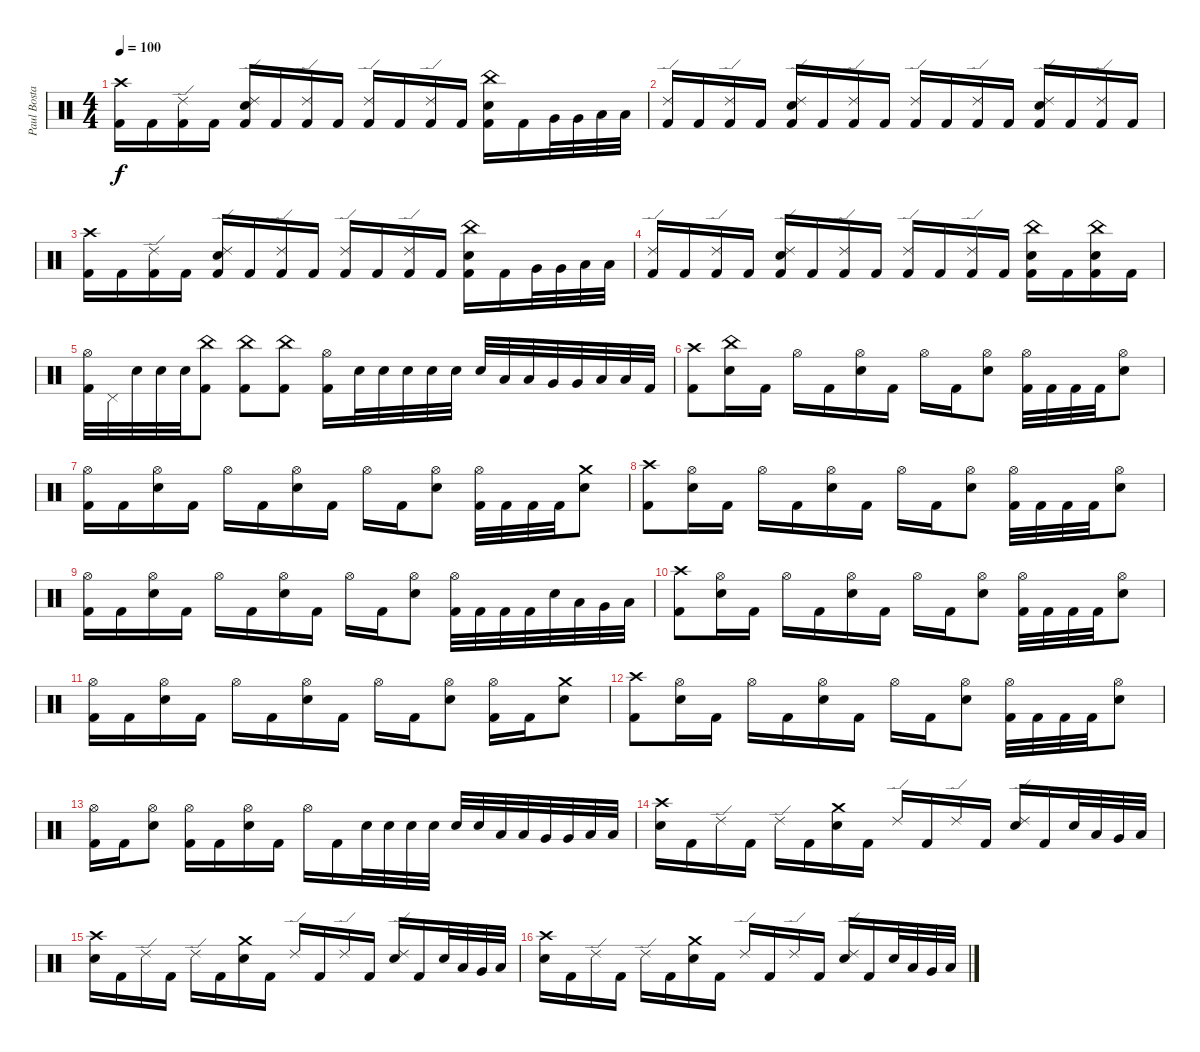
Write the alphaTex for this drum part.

\track ("Paul Bostaph" "Paul Bosta") {instrument percussion}
\staff {score}
\articulation defaults
\ts (4 4)
\tempo 100
\clef neutral
\ks c
("Crash high (hit)" "Kick (hit) 2").16{dy f} "Kick (hit) 2".16 ("Ride (edge) 2" "Kick (hit) 2").16 "Kick (hit) 2".16 ("Ride (edge) 2" "Snare (hit) 2" "Kick (hit) 2").16 "Kick (hit) 2".16 ("Ride (edge) 2" "Kick (hit) 2").16 "Kick (hit) 2".16 ("Ride (edge) 2" "Kick (hit) 2").16 "Kick (hit) 2".16 ("Ride (edge) 2" "Kick (hit) 2").16 "Kick (hit) 2".16 ("China (hit)" "Snare (hit) 2" "Kick (hit) 2").16 "Kick (hit) 2".16 "Very Low Tom (hit)".32 "Very Low Tom (hit)".32 "Low Floor Tom (hit)".32 "Low Floor Tom (hit)".32 |
("Ride (edge) 2" "Kick (hit) 2").16 "Kick (hit) 2".16 ("Ride (edge) 2" "Kick (hit) 2").16 "Kick (hit) 2".16 ("Ride (edge) 2" "Snare (hit) 2" "Kick (hit) 2").16 "Kick (hit) 2".16 ("Ride (edge) 2" "Kick (hit) 2").16 "Kick (hit) 2".16 ("Ride (edge) 2" "Kick (hit) 2").16 "Kick (hit) 2".16 ("Ride (edge) 2" "Kick (hit) 2").16 "Kick (hit) 2".16 ("Ride (edge) 2" "Snare (hit) 2" "Kick (hit) 2").16 "Kick (hit) 2".16 ("Ride (edge) 2" "Kick (hit) 2").16 "Kick (hit) 2".16 |
("Crash high (hit)" "Kick (hit) 2").16 "Kick (hit) 2".16 ("Ride (edge) 2" "Kick (hit) 2").16 "Kick (hit) 2".16 ("Ride (edge) 2" "Snare (hit) 2" "Kick (hit) 2").16 "Kick (hit) 2".16 ("Ride (edge) 2" "Kick (hit) 2").16 "Kick (hit) 2".16 ("Ride (edge) 2" "Kick (hit) 2").16 "Kick (hit) 2".16 ("Ride (edge) 2" "Kick (hit) 2").16 "Kick (hit) 2".16 ("China (hit)" "Snare (hit) 2" "Kick (hit) 2").16 "Kick (hit) 2".16 "Very Low Tom (hit)".32 "Very Low Tom (hit)".32 "Low Floor Tom (hit)".32 "Low Floor Tom (hit)".32 |
("Ride (edge) 2" "Kick (hit) 2").16 "Kick (hit) 2".16 ("Ride (edge) 2" "Kick (hit) 2").16 "Kick (hit) 2".16 ("Ride (edge) 2" "Snare (hit) 2" "Kick (hit) 2").16 "Kick (hit) 2".16 ("Ride (edge) 2" "Kick (hit) 2").16 "Kick (hit) 2".16 ("Ride (edge) 2" "Kick (hit) 2").16 "Kick (hit) 2".16 ("Ride (edge) 2" "Kick (hit) 2").16 "Kick (hit) 2".16 ("China (hit)" "Snare (hit) 2" "Kick (hit) 2").16 "Kick (hit) 2".16 ("China (hit)" "Snare (hit) 2" "Kick (hit) 2").16 "Kick (hit) 2".16 |
("Hi-Hat (open)" "Kick (hit) 2").32 "Pedal Hi-Hat (hit)".32 "Snare (hit) 2".32 "Snare (hit) 2".32 "Snare (hit) 2".32 ("China (hit)" "Kick (hit) 2").8 ("China (hit)" "Kick (hit) 2").8 ("China (hit)" "Kick (hit) 2").8 ("Hi-Hat (open)" "Kick (hit) 2").16 "Snare (hit) 2".32 "Snare (hit) 2".32 "Snare (hit) 2".32 "Snare (hit) 2".32 "Snare (hit) 2".32 "Snare (hit) 2".32 "Low Tom (hit)".32 "Low Tom (hit)".32 "Very Low Tom (hit)".32 "Very Low Tom (hit)".32 "Low Floor Tom (hit)".32 "Low Floor Tom (hit)".32 "Kick (hit) 2".32 |
("Crash high (hit)" "Kick (hit) 2").8 ("China (hit)" "Snare (hit) 2").16 "Kick (hit) 2".16 "Hi-Hat (open)".16 "Kick (hit) 2".16 ("Hi-Hat (open)" "Snare (hit) 2").16 "Kick (hit) 2".16 "Hi-Hat (open)".16 "Kick (hit) 2".16 ("Hi-Hat (open)" "Snare (hit) 2").8 ("Hi-Hat (open)" "Kick (hit) 2").32 "Kick (hit) 2".32 "Kick (hit) 2".32 "Kick (hit) 2".32 ("Hi-Hat (open)" "Snare (hit) 2").8 |
("Hi-Hat (open)" "Kick (hit) 2").16 "Kick (hit) 2".16 ("Hi-Hat (open)" "Snare (hit) 2").16 "Kick (hit) 2".16 "Hi-Hat (open)".16 "Kick (hit) 2".16 ("Hi-Hat (open)" "Snare (hit) 2").16 "Kick (hit) 2".16 "Hi-Hat (open)".16 "Kick (hit) 2".16 ("Hi-Hat (open)" "Snare (hit) 2").8 ("Hi-Hat (open)" "Kick (hit) 2").32 "Kick (hit) 2".32 "Kick (hit) 2".32 "Kick (hit) 2".32 ("Crash medium (hit)" "Snare (hit) 2").8 |
("Crash high (hit)" "Kick (hit) 2").8 ("Hi-Hat (open)" "Snare (hit) 2").16 "Kick (hit) 2".16 "Hi-Hat (open)".16 "Kick (hit) 2".16 ("Hi-Hat (open)" "Snare (hit) 2").16 "Kick (hit) 2".16 "Hi-Hat (open)".16 "Kick (hit) 2".16 ("Hi-Hat (open)" "Snare (hit) 2").8 ("Hi-Hat (open)" "Kick (hit) 2").32 "Kick (hit) 2".32 "Kick (hit) 2".32 "Kick (hit) 2".32 ("Hi-Hat (open)" "Snare (hit) 2").8 |
("Hi-Hat (open)" "Kick (hit) 2").16 "Kick (hit) 2".16 ("Hi-Hat (open)" "Snare (hit) 2").16 "Kick (hit) 2".16 "Hi-Hat (open)".16 "Kick (hit) 2".16 ("Hi-Hat (open)" "Snare (hit) 2").16 "Kick (hit) 2".16 "Hi-Hat (open)".16 "Kick (hit) 2".16 ("Hi-Hat (open)" "Snare (hit) 2").8 ("Hi-Hat (open)" "Kick (hit) 2").32 "Kick (hit) 2".32 "Kick (hit) 2".32 "Kick (hit) 2".32 "Snare (hit) 2".32 "Low Tom (hit)".32 "Very Low Tom (hit)".32 "Low Floor Tom (hit)".32 |
("Crash high (hit)" "Kick (hit) 2").8 ("Hi-Hat (open)" "Snare (hit) 2").16 "Kick (hit) 2".16 "Hi-Hat (open)".16 "Kick (hit) 2".16 ("Hi-Hat (open)" "Snare (hit) 2").16 "Kick (hit) 2".16 "Hi-Hat (open)".16 "Kick (hit) 2".16 ("Hi-Hat (open)" "Snare (hit) 2").8 ("Hi-Hat (open)" "Kick (hit) 2").32 "Kick (hit) 2".32 "Kick (hit) 2".32 "Kick (hit) 2".32 ("Hi-Hat (open)" "Snare (hit) 2").8 |
("Hi-Hat (open)" "Kick (hit) 2").16 "Kick (hit) 2".16 ("Hi-Hat (open)" "Snare (hit) 2").16 "Kick (hit) 2".16 "Hi-Hat (open)".16 "Kick (hit) 2".16 ("Hi-Hat (open)" "Snare (hit) 2").16 "Kick (hit) 2".16 "Hi-Hat (open)".16 "Kick (hit) 2".16 ("Hi-Hat (open)" "Snare (hit) 2").8 ("Hi-Hat (open)" "Kick (hit) 2").16 "Kick (hit) 2".16 ("Crash medium (hit)" "Snare (hit) 2").8 |
("Crash high (hit)" "Kick (hit) 2").8 ("Hi-Hat (open)" "Snare (hit) 2").16 "Kick (hit) 2".16 "Hi-Hat (open)".16 "Kick (hit) 2".16 ("Hi-Hat (open)" "Snare (hit) 2").16 "Kick (hit) 2".16 "Hi-Hat (open)".16 "Kick (hit) 2".16 ("Hi-Hat (open)" "Snare (hit) 2").8 ("Hi-Hat (open)" "Kick (hit) 2").32 "Kick (hit) 2".32 "Kick (hit) 2".32 "Kick (hit) 2".32 ("Hi-Hat (open)" "Snare (hit) 2").8 |
("Hi-Hat (open)" "Kick (hit) 2").16 "Kick (hit) 2".16 ("Hi-Hat (open)" "Snare (hit) 2").8 ("Hi-Hat (open)" "Kick (hit) 2").16 "Kick (hit) 2".16 ("Hi-Hat (open)" "Snare (hit) 2").16 "Kick (hit) 2".16 "Hi-Hat (open)".16 "Kick (hit) 2".16 "Snare (hit) 2".32 "Snare (hit) 2".32 "Snare (hit) 2".32 "Snare (hit) 2".32 "Snare (hit) 2".32 "Snare (hit) 2".32 "Low Tom (hit)".32 "Low Tom (hit)".32 "Very Low Tom (hit)".32 "Very Low Tom (hit)".32 "Low Floor Tom (hit)".32 "Low Floor Tom (hit)".32 |
("Crash high (hit)" "Snare (hit) 2").16 "Kick (hit) 2".16 "Ride (edge) 2".16 "Kick (hit) 2".16 "Ride (edge) 2".16 "Kick (hit) 2".16 ("Crash medium (hit)" "Snare (hit) 2").16 "Kick (hit) 2".16 "Ride (edge) 2".16 "Kick (hit) 2".16 "Ride (edge) 2".16 "Kick (hit) 2".16 ("Ride (edge) 2" "Snare (hit) 2").16 "Kick (hit) 2".16 "Snare (hit) 2".32 "Low Tom (hit)".32 "Very Low Tom (hit)".32 "Low Floor Tom (hit)".32 |
("Crash high (hit)" "Snare (hit) 2").16 "Kick (hit) 2".16 "Ride (edge) 2".16 "Kick (hit) 2".16 "Ride (edge) 2".16 "Kick (hit) 2".16 ("Crash medium (hit)" "Snare (hit) 2").16 "Kick (hit) 2".16 "Ride (edge) 2".16 "Kick (hit) 2".16 "Ride (edge) 2".16 "Kick (hit) 2".16 ("Ride (edge) 2" "Snare (hit) 2").16 "Kick (hit) 2".16 "Snare (hit) 2".32 "Low Tom (hit)".32 "Very Low Tom (hit)".32 "Low Floor Tom (hit)".32 |
("Crash high (hit)" "Snare (hit) 2").16 "Kick (hit) 2".16 "Ride (edge) 2".16 "Kick (hit) 2".16 "Ride (edge) 2".16 "Kick (hit) 2".16 ("Crash medium (hit)" "Snare (hit) 2").16 "Kick (hit) 2".16 "Ride (edge) 2".16 "Kick (hit) 2".16 "Ride (edge) 2".16 "Kick (hit) 2".16 ("Ride (edge) 2" "Snare (hit) 2").16 "Kick (hit) 2".16 "Snare (hit) 2".32 "Low Tom (hit)".32 "Very Low Tom (hit)".32 "Low Floor Tom (hit)".32
